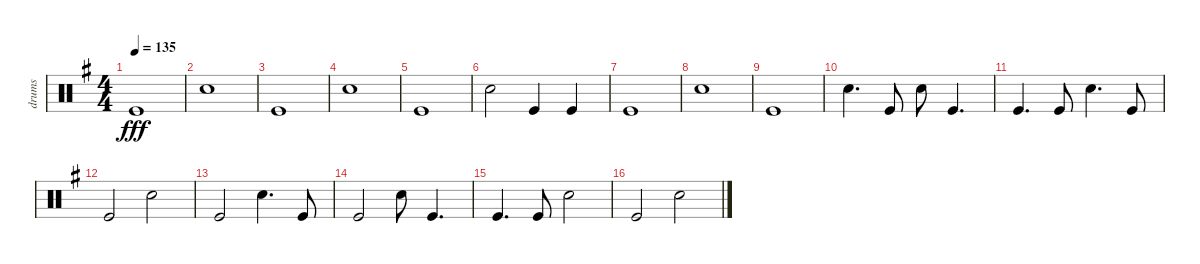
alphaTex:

\track ("drums" "drums") {instrument percussion}
\staff {score}
\articulation defaults
\ts (4 4)
\tempo 135
\clef neutral
\ks eminor "Kick (hit)".1{dy fff}
|
"Electric Snare (hit)".1 |
"Kick (hit)".1 |
"Electric Snare (hit)".1 |
"Kick (hit)".1 |
"Electric Snare (hit)".2 "Kick (hit)".4 "Kick (hit)".4 |
"Kick (hit)".1 |
"Electric Snare (hit)".1 |
"Kick (hit)".1 |
"Electric Snare (hit)".4{d} "Kick (hit)".8 "Electric Snare (hit)".8 "Kick (hit)".4{d} |
"Kick (hit)".4{d} "Kick (hit)".8 "Electric Snare (hit)".4{d} "Kick (hit)".8 |
"Kick (hit)".2 "Electric Snare (hit)".2 |
"Kick (hit)".2 "Electric Snare (hit)".4{d} "Kick (hit)".8 |
"Kick (hit)".2 "Electric Snare (hit)".8 "Kick (hit)".4{d} |
"Kick (hit)".4{d} "Kick (hit)".8 "Electric Snare (hit)".2 |
"Kick (hit)".2 "Electric Snare (hit)".2
